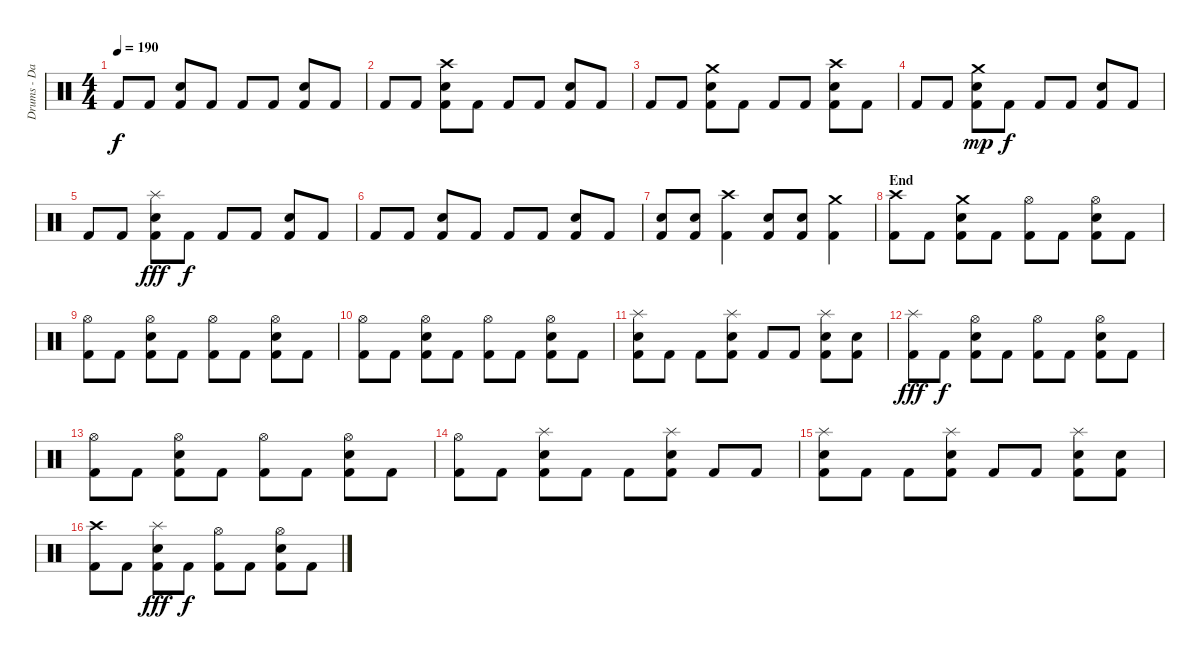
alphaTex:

\track ("Drums - Daniel Zimmermann" "Drums - Da") {instrument percussion}
\staff {score}
\articulation defaults
\ts (4 4)
\tempo 190
\clef neutral
\ks c "Kick (hit) 2".8{dy f} "Kick (hit) 2".8
("Kick (hit) 2" "Electric Snare (hit)").8 "Kick (hit) 2".8 "Kick (hit) 2".8 "Kick (hit) 2".8 ("Kick (hit) 2" "Electric Snare (hit)").8 "Kick (hit) 2".8 |
"Kick (hit) 2".8 "Kick (hit) 2".8 ("Kick (hit) 2" "Electric Snare (hit)" "Crash high (hit)").8 "Kick (hit) 2".8 "Kick (hit) 2".8 "Kick (hit) 2".8 ("Kick (hit) 2" "Electric Snare (hit)").8 "Kick (hit) 2".8 |
"Kick (hit) 2".8 "Kick (hit) 2".8 ("Kick (hit) 2" "Electric Snare (hit)" "Crash medium (hit)").8 "Kick (hit) 2".8 "Kick (hit) 2".8 "Kick (hit) 2".8 ("Kick (hit) 2" "Electric Snare (hit)" "Crash high (hit)").8 "Kick (hit) 2".8 |
"Kick (hit) 2".8 "Kick (hit) 2".8 ("Kick (hit) 2" "Electric Snare (hit)" "Crash medium (hit)").8{dy mp} "Kick (hit) 2".8{dy f} "Kick (hit) 2".8 "Kick (hit) 2".8 ("Kick (hit) 2" "Electric Snare (hit)").8 "Kick (hit) 2".8 |
"Kick (hit) 2".8 "Kick (hit) 2".8 ("Kick (hit) 2" "Electric Snare (hit)" "Splash (hit)").8{dy fff} "Kick (hit) 2".8{dy f} "Kick (hit) 2".8 "Kick (hit) 2".8 ("Kick (hit) 2" "Electric Snare (hit)").8 "Kick (hit) 2".8 |
"Kick (hit) 2".8 "Kick (hit) 2".8 ("Kick (hit) 2" "Electric Snare (hit)").8 "Kick (hit) 2".8 "Kick (hit) 2".8 "Kick (hit) 2".8 ("Kick (hit) 2" "Electric Snare (hit)").8 "Kick (hit) 2".8 |
("Kick (hit) 2" "Electric Snare (hit)").8 ("Kick (hit) 2" "Electric Snare (hit)").8 ("Kick (hit) 2" "Crash high (hit)").4 ("Kick (hit) 2" "Electric Snare (hit)").8 ("Kick (hit) 2" "Electric Snare (hit)").8 ("Kick (hit) 2" "Crash medium (hit)").4 |
\section ("" "End")
("Kick (hit) 2" "Crash high (hit)").8 "Kick (hit) 2".8 ("Kick (hit) 2" "Electric Snare (hit)" "Crash medium (hit)").8 "Kick (hit) 2".8 ("Kick (hit) 2" "Hi-Hat (open)").8 "Kick (hit) 2".8 ("Kick (hit) 2" "Electric Snare (hit)" "Hi-Hat (open)").8 "Kick (hit) 2".8 |
("Kick (hit) 2" "Hi-Hat (open)").8 "Kick (hit) 2".8 ("Kick (hit) 2" "Electric Snare (hit)" "Hi-Hat (open)").8 "Kick (hit) 2".8 ("Kick (hit) 2" "Hi-Hat (open)").8 "Kick (hit) 2".8 ("Kick (hit) 2" "Electric Snare (hit)" "Hi-Hat (open)").8 "Kick (hit) 2".8 |
("Kick (hit) 2" "Hi-Hat (open)").8 "Kick (hit) 2".8 ("Kick (hit) 2" "Electric Snare (hit)" "Hi-Hat (open)").8 "Kick (hit) 2".8 ("Kick (hit) 2" "Hi-Hat (open)").8 "Kick (hit) 2".8 ("Kick (hit) 2" "Electric Snare (hit)" "Hi-Hat (open)").8 "Kick (hit) 2".8 |
("Kick (hit) 2" "Electric Snare (hit)" "Splash (hit)").8 "Kick (hit) 2".8 "Kick (hit) 2".8 ("Kick (hit) 2" "Electric Snare (hit)" "Splash (hit)").8 "Kick (hit) 2".8 "Kick (hit) 2".8 ("Kick (hit) 2" "Electric Snare (hit)" "Splash (hit)").8 ("Kick (hit) 2" "Electric Snare (hit)").8 |
("Kick (hit) 2" "Splash (hit)").8{dy fff} "Kick (hit) 2".8{dy f} ("Kick (hit) 2" "Electric Snare (hit)" "Hi-Hat (open)").8 "Kick (hit) 2".8 ("Kick (hit) 2" "Hi-Hat (open)").8 "Kick (hit) 2".8 ("Kick (hit) 2" "Electric Snare (hit)" "Hi-Hat (open)").8 "Kick (hit) 2".8 |
("Kick (hit) 2" "Hi-Hat (open)").8 "Kick (hit) 2".8 ("Kick (hit) 2" "Electric Snare (hit)" "Hi-Hat (open)").8 "Kick (hit) 2".8 ("Kick (hit) 2" "Hi-Hat (open)").8 "Kick (hit) 2".8 ("Kick (hit) 2" "Electric Snare (hit)" "Hi-Hat (open)").8 "Kick (hit) 2".8 |
("Kick (hit) 2" "Hi-Hat (open)").8 "Kick (hit) 2".8 ("Kick (hit) 2" "Electric Snare (hit)" "Splash (hit)").8 "Kick (hit) 2".8 "Kick (hit) 2".8 ("Kick (hit) 2" "Electric Snare (hit)" "Splash (hit)").8 "Kick (hit) 2".8 "Kick (hit) 2".8 |
("Kick (hit) 2" "Electric Snare (hit)" "Splash (hit)").8 "Kick (hit) 2".8 "Kick (hit) 2".8 ("Kick (hit) 2" "Electric Snare (hit)" "Splash (hit)").8 "Kick (hit) 2".8 "Kick (hit) 2".8 ("Kick (hit) 2" "Electric Snare (hit)" "Splash (hit)").8 ("Kick (hit) 2" "Electric Snare (hit)").8 |
("Kick (hit) 2" "Crash high (hit)").8 "Kick (hit) 2".8 ("Kick (hit) 2" "Electric Snare (hit)" "Splash (hit)").8{dy fff} "Kick (hit) 2".8{dy f} ("Kick (hit) 2" "Hi-Hat (open)").8 "Kick (hit) 2".8 ("Kick (hit) 2" "Electric Snare (hit)" "Hi-Hat (open)").8 "Kick (hit) 2".8
